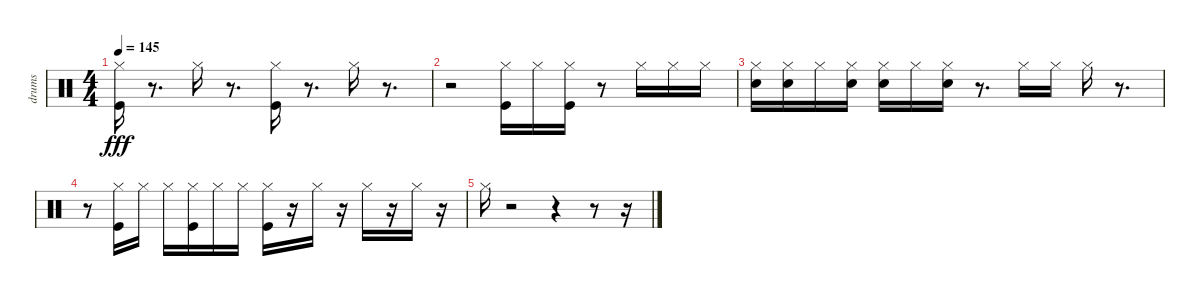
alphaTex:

\track ("drums" "drums") {instrument percussion}
\staff {score}
\articulation defaults
\ts (4 4)
\tempo 145
\clef neutral
\ks c
("Kick (hit)" "Hi-Hat (closed)").16{dy fff} r.8{d} "Hi-Hat (closed)".16 r.8{d} ("Kick (hit)" "Hi-Hat (closed)").16 r.8{d} "Hi-Hat (closed)".16 r.8{d} |
r.2 ("Hi-Hat (closed)" "Kick (hit)").16 "Hi-Hat (closed)".16 ("Hi-Hat (closed)" "Kick (hit)").16 r.8 "Hi-Hat (closed)".16 "Hi-Hat (closed)".16 "Hi-Hat (closed)".16 |
("Hi-Hat (closed)" "Snare (hit) 2").16 ("Hi-Hat (closed)" "Snare (hit) 2").16 "Hi-Hat (closed)".16 ("Hi-Hat (closed)" "Snare (hit) 2").16 ("Hi-Hat (closed)" "Snare (hit) 2").16 "Hi-Hat (closed)".16 ("Hi-Hat (closed)" "Snare (hit) 2").16 r.8{d} "Hi-Hat (closed)".16 "Hi-Hat (closed)".16 "Hi-Hat (closed)".16 r.8{d} |
r.8 ("Hi-Hat (closed)" "Kick (hit)").16 "Hi-Hat (closed)".16 "Hi-Hat (closed)".16 ("Hi-Hat (closed)" "Kick (hit)").16 "Hi-Hat (closed)".16 "Hi-Hat (closed)".16 ("Hi-Hat (closed)" "Kick (hit)").16 r.16 "Hi-Hat (closed)".16 r.16 "Hi-Hat (closed)".16 r.16 "Hi-Hat (closed)".16 r.16 |
"Hi-Hat (closed)".16 r.2 r.4 r.8 r.16
